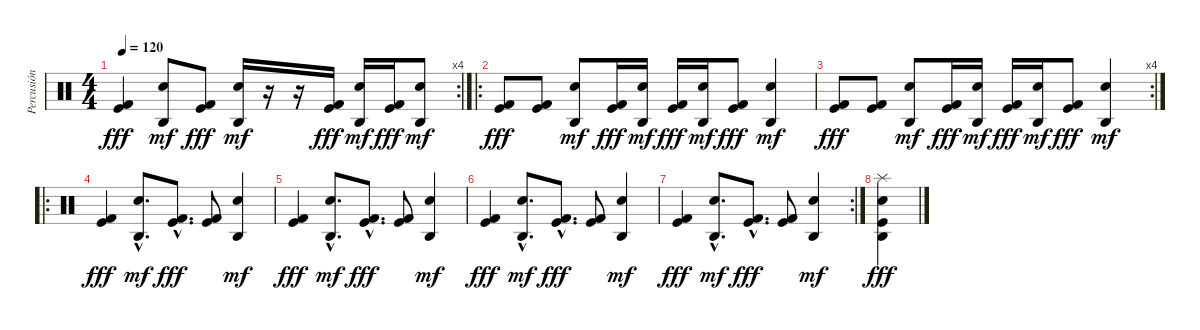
\track ("Percusión" "Percusión") {instrument percussion}
\staff {score}
\articulation defaults
\rc 4
\ts (4 4)
\tempo 120
\clef neutral
\ks c
("Kick (hit)" "Kick (hit) 2").4{dy fff} ("Electric Snare (hit)" "Agogo high (hit)").8{dy mf} ("Kick (hit)" "Kick (hit) 2").8{dy fff} ("Electric Snare (hit)" "Agogo high (hit)").16{dy mf} r.16 r.16 ("Kick (hit)" "Kick (hit) 2").16{dy fff} ("Electric Snare (hit)" "Agogo high (hit)").16{dy mf} ("Kick (hit)" "Kick (hit) 2").16{dy fff} ("Electric Snare (hit)" "Agogo high (hit)").8{dy mf} |
\ro
("Kick (hit)" "Kick (hit) 2").8{dy fff} ("Kick (hit)" "Kick (hit) 2").8 ("Electric Snare (hit)" "Agogo high (hit)").8{dy mf} ("Kick (hit)" "Kick (hit) 2").16{dy fff} ("Electric Snare (hit)" "Agogo high (hit)").16{dy mf} ("Kick (hit)" "Kick (hit) 2").16{dy fff} ("Electric Snare (hit)" "Agogo high (hit)").16{dy mf} ("Kick (hit)" "Kick (hit) 2").8{dy fff} ("Electric Snare (hit)" "Agogo high (hit)").4{dy mf} |
\rc 4
("Kick (hit)" "Kick (hit) 2").8{dy fff} ("Kick (hit)" "Kick (hit) 2").8 ("Electric Snare (hit)" "Agogo high (hit)").8{dy mf} ("Kick (hit)" "Kick (hit) 2").16{dy fff} ("Electric Snare (hit)" "Agogo high (hit)").16{dy mf} ("Kick (hit)" "Kick (hit) 2").16{dy fff} ("Electric Snare (hit)" "Agogo high (hit)").16{dy mf} ("Kick (hit)" "Kick (hit) 2").8{dy fff} ("Electric Snare (hit)" "Agogo high (hit)").4{dy mf} |
\ro
("Kick (hit)" "Kick (hit) 2").4{dy fff} ("Electric Snare (hit)"{hac} "Agogo high (hit)"{hac}).8{d dy mf} ("Kick (hit)"{hac} "Kick (hit) 2"{hac}).8{d dy fff} ("Kick (hit)" "Kick (hit) 2").8 ("Electric Snare (hit)" "Agogo high (hit)").4{dy mf} |
("Kick (hit)" "Kick (hit) 2").4{dy fff} ("Electric Snare (hit)"{hac} "Agogo high (hit)"{hac}).8{d dy mf} ("Kick (hit)"{hac} "Kick (hit) 2"{hac}).8{d dy fff} ("Kick (hit)" "Kick (hit) 2").8 ("Electric Snare (hit)" "Agogo high (hit)").4{dy mf} |
("Kick (hit)" "Kick (hit) 2").4{dy fff} ("Electric Snare (hit)"{hac} "Agogo high (hit)"{hac}).8{d dy mf} ("Kick (hit)"{hac} "Kick (hit) 2"{hac}).8{d dy fff} ("Kick (hit)" "Kick (hit) 2").8 ("Electric Snare (hit)" "Agogo high (hit)").4{dy mf} |
\rc 2
("Kick (hit)" "Kick (hit) 2").4{dy fff} ("Electric Snare (hit)"{hac} "Agogo high (hit)"{hac}).8{d dy mf} ("Kick (hit)"{hac} "Kick (hit) 2"{hac}).8{d dy fff} ("Kick (hit)" "Kick (hit) 2").8 ("Electric Snare (hit)" "Agogo high (hit)").4{dy mf} |
("Electric Snare (hit)" "Kick (hit)" "Agogo high (hit)" "Splash (hit)").4{dy fff}
